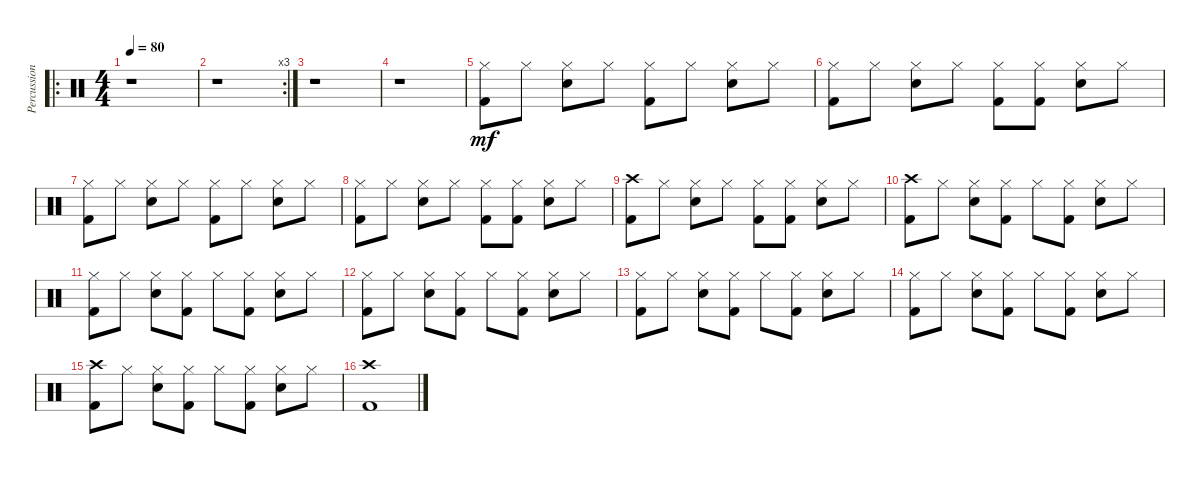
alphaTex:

\track ("Percussions" "Percussion") {instrument percussion}
\staff {score}
\articulation defaults
\ro
\ts (4 4)
\tempo 80
\clef neutral
\ks c
r.1{dy mf} |
\rc 3
r.1 |
r.1 |
r.1 |
("Hi-Hat (closed)" "Kick (hit) 2").8 "Hi-Hat (closed)".8 ("Hi-Hat (closed)" "Electric Snare (hit)").8 "Hi-Hat (closed)".8 ("Hi-Hat (closed)" "Kick (hit) 2").8 "Hi-Hat (closed)".8 ("Hi-Hat (closed)" "Electric Snare (hit)").8 "Hi-Hat (closed)".8 |
("Hi-Hat (closed)" "Kick (hit) 2").8 "Hi-Hat (closed)".8 ("Hi-Hat (closed)" "Electric Snare (hit)").8 "Hi-Hat (closed)".8 ("Hi-Hat (closed)" "Kick (hit) 2").8 ("Hi-Hat (closed)" "Kick (hit) 2").8 ("Hi-Hat (closed)" "Electric Snare (hit)").8 "Hi-Hat (closed)".8 |
("Hi-Hat (closed)" "Kick (hit) 2").8 "Hi-Hat (closed)".8 ("Hi-Hat (closed)" "Electric Snare (hit)").8 "Hi-Hat (closed)".8 ("Hi-Hat (closed)" "Kick (hit) 2").8 "Hi-Hat (closed)".8 ("Hi-Hat (closed)" "Electric Snare (hit)").8 "Hi-Hat (closed)".8 |
("Hi-Hat (closed)" "Kick (hit) 2").8 "Hi-Hat (closed)".8 ("Hi-Hat (closed)" "Electric Snare (hit)").8 "Hi-Hat (closed)".8 ("Hi-Hat (closed)" "Kick (hit) 2").8 ("Hi-Hat (closed)" "Kick (hit) 2").8 ("Hi-Hat (closed)" "Electric Snare (hit)").8 "Hi-Hat (closed)".8 |
("Crash high (hit)" "Kick (hit) 2").8 "Hi-Hat (closed)".8 ("Hi-Hat (closed)" "Electric Snare (hit)").8 "Hi-Hat (closed)".8 ("Hi-Hat (closed)" "Kick (hit) 2").8 ("Hi-Hat (closed)" "Kick (hit) 2").8 ("Hi-Hat (closed)" "Electric Snare (hit)").8 "Hi-Hat (closed)".8 |
("Crash high (hit)" "Kick (hit) 2").8 "Hi-Hat (closed)".8 ("Hi-Hat (closed)" "Electric Snare (hit)").8 ("Hi-Hat (closed)" "Kick (hit) 2").8 "Hi-Hat (closed)".8 ("Hi-Hat (closed)" "Kick (hit) 2").8 ("Hi-Hat (closed)" "Electric Snare (hit)").8 "Hi-Hat (closed)".8 |
("Hi-Hat (closed)" "Kick (hit) 2").8 "Hi-Hat (closed)".8 ("Hi-Hat (closed)" "Electric Snare (hit)").8 ("Hi-Hat (closed)" "Kick (hit) 2").8 "Hi-Hat (closed)".8 ("Hi-Hat (closed)" "Kick (hit) 2").8 ("Hi-Hat (closed)" "Electric Snare (hit)").8 "Hi-Hat (closed)".8 |
("Hi-Hat (closed)" "Kick (hit) 2").8 "Hi-Hat (closed)".8 ("Hi-Hat (closed)" "Electric Snare (hit)").8 ("Hi-Hat (closed)" "Kick (hit) 2").8 "Hi-Hat (closed)".8 ("Hi-Hat (closed)" "Kick (hit) 2").8 ("Hi-Hat (closed)" "Electric Snare (hit)").8 "Hi-Hat (closed)".8 |
("Hi-Hat (closed)" "Kick (hit) 2").8 "Hi-Hat (closed)".8 ("Hi-Hat (closed)" "Electric Snare (hit)").8 ("Hi-Hat (closed)" "Kick (hit) 2").8 "Hi-Hat (closed)".8 ("Hi-Hat (closed)" "Kick (hit) 2").8 ("Hi-Hat (closed)" "Electric Snare (hit)").8 "Hi-Hat (closed)".8 |
("Hi-Hat (closed)" "Kick (hit) 2").8 "Hi-Hat (closed)".8 ("Hi-Hat (closed)" "Electric Snare (hit)").8 ("Hi-Hat (closed)" "Kick (hit) 2").8 "Hi-Hat (closed)".8 ("Hi-Hat (closed)" "Kick (hit) 2").8 ("Hi-Hat (closed)" "Electric Snare (hit)").8 "Hi-Hat (closed)".8 |
("Crash high (hit)" "Kick (hit) 2").8 "Hi-Hat (closed)".8 ("Hi-Hat (closed)" "Electric Snare (hit)").8 ("Hi-Hat (closed)" "Kick (hit) 2").8 "Hi-Hat (closed)".8 ("Hi-Hat (closed)" "Kick (hit) 2").8 ("Hi-Hat (closed)" "Electric Snare (hit)").8 "Hi-Hat (closed)".8 |
("Crash high (hit)" "Kick (hit) 2").1
